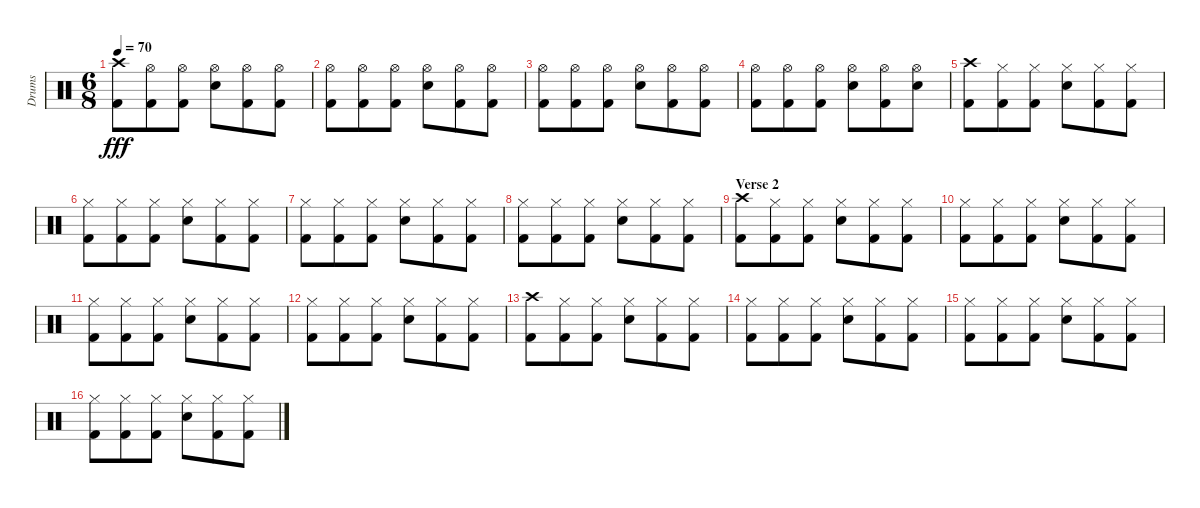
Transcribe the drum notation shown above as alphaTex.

\track ("Drums" "Drums") {instrument percussion}
\staff {score}
\articulation defaults
\ts (6 8)
\tempo 70
\clef neutral
\ks c
("Crash high (hit)" "Kick (hit) 2").8{dy fff} ("Hi-Hat (open)" "Kick (hit) 2").8 ("Hi-Hat (open)" "Kick (hit) 2").8 ("Hi-Hat (open)" "Electric Snare (hit)").8 ("Hi-Hat (open)" "Kick (hit) 2").8 ("Hi-Hat (open)" "Kick (hit) 2").8 |
("Hi-Hat (open)" "Kick (hit) 2").8 ("Hi-Hat (open)" "Kick (hit) 2").8 ("Hi-Hat (open)" "Kick (hit) 2").8 ("Hi-Hat (open)" "Electric Snare (hit)").8 ("Hi-Hat (open)" "Kick (hit) 2").8 ("Hi-Hat (open)" "Kick (hit) 2").8 |
("Hi-Hat (open)" "Kick (hit) 2").8 ("Hi-Hat (open)" "Kick (hit) 2").8 ("Hi-Hat (open)" "Kick (hit) 2").8 ("Hi-Hat (open)" "Electric Snare (hit)").8 ("Hi-Hat (open)" "Kick (hit) 2").8 ("Hi-Hat (open)" "Kick (hit) 2").8 |
("Hi-Hat (open)" "Kick (hit) 2").8 ("Hi-Hat (open)" "Kick (hit) 2").8 ("Hi-Hat (open)" "Kick (hit) 2").8 ("Hi-Hat (open)" "Electric Snare (hit)").8 ("Hi-Hat (open)" "Kick (hit) 2").8 ("Hi-Hat (open)" "Electric Snare (hit)").8 |
("Crash high (hit)" "Kick (hit) 2").8 ("Hi-Hat (closed)" "Kick (hit) 2").8 ("Hi-Hat (closed)" "Kick (hit) 2").8 ("Hi-Hat (closed)" "Electric Snare (hit)").8 ("Hi-Hat (closed)" "Kick (hit) 2").8 ("Hi-Hat (closed)" "Kick (hit) 2").8 |
("Hi-Hat (closed)" "Kick (hit) 2").8 ("Hi-Hat (closed)" "Kick (hit) 2").8 ("Hi-Hat (closed)" "Kick (hit) 2").8 ("Hi-Hat (closed)" "Electric Snare (hit)").8 ("Hi-Hat (closed)" "Kick (hit) 2").8 ("Hi-Hat (closed)" "Kick (hit) 2").8 |
("Hi-Hat (closed)" "Kick (hit) 2").8 ("Hi-Hat (closed)" "Kick (hit) 2").8 ("Hi-Hat (closed)" "Kick (hit) 2").8 ("Hi-Hat (closed)" "Electric Snare (hit)").8 ("Hi-Hat (closed)" "Kick (hit) 2").8 ("Hi-Hat (closed)" "Kick (hit) 2").8 |
("Hi-Hat (closed)" "Kick (hit) 2").8 ("Hi-Hat (closed)" "Kick (hit) 2").8 ("Hi-Hat (closed)" "Kick (hit) 2").8 ("Hi-Hat (closed)" "Electric Snare (hit)").8 ("Hi-Hat (closed)" "Kick (hit) 2").8 ("Hi-Hat (closed)" "Kick (hit) 2").8 |
\section ("" "Verse 2")
("Crash high (hit)" "Kick (hit) 2").8 ("Hi-Hat (closed)" "Kick (hit) 2").8 ("Hi-Hat (closed)" "Kick (hit) 2").8 ("Hi-Hat (closed)" "Electric Snare (hit)").8 ("Hi-Hat (closed)" "Kick (hit) 2").8 ("Hi-Hat (closed)" "Kick (hit) 2").8 |
("Hi-Hat (closed)" "Kick (hit) 2").8 ("Hi-Hat (closed)" "Kick (hit) 2").8 ("Hi-Hat (closed)" "Kick (hit) 2").8 ("Hi-Hat (closed)" "Electric Snare (hit)").8 ("Hi-Hat (closed)" "Kick (hit) 2").8 ("Hi-Hat (closed)" "Kick (hit) 2").8 |
("Hi-Hat (closed)" "Kick (hit) 2").8 ("Hi-Hat (closed)" "Kick (hit) 2").8 ("Hi-Hat (closed)" "Kick (hit) 2").8 ("Hi-Hat (closed)" "Electric Snare (hit)").8 ("Hi-Hat (closed)" "Kick (hit) 2").8 ("Hi-Hat (closed)" "Kick (hit) 2").8 |
("Hi-Hat (closed)" "Kick (hit) 2").8 ("Hi-Hat (closed)" "Kick (hit) 2").8 ("Hi-Hat (closed)" "Kick (hit) 2").8 ("Hi-Hat (closed)" "Electric Snare (hit)").8 ("Hi-Hat (closed)" "Kick (hit) 2").8 ("Hi-Hat (closed)" "Kick (hit) 2").8 |
("Crash high (hit)" "Kick (hit) 2").8 ("Hi-Hat (closed)" "Kick (hit) 2").8 ("Hi-Hat (closed)" "Kick (hit) 2").8 ("Hi-Hat (closed)" "Electric Snare (hit)").8 ("Hi-Hat (closed)" "Kick (hit) 2").8 ("Hi-Hat (closed)" "Kick (hit) 2").8 |
("Hi-Hat (closed)" "Kick (hit) 2").8 ("Hi-Hat (closed)" "Kick (hit) 2").8 ("Hi-Hat (closed)" "Kick (hit) 2").8 ("Hi-Hat (closed)" "Electric Snare (hit)").8 ("Hi-Hat (closed)" "Kick (hit) 2").8 ("Hi-Hat (closed)" "Kick (hit) 2").8 |
("Hi-Hat (closed)" "Kick (hit) 2").8 ("Hi-Hat (closed)" "Kick (hit) 2").8 ("Hi-Hat (closed)" "Kick (hit) 2").8 ("Hi-Hat (closed)" "Electric Snare (hit)").8 ("Hi-Hat (closed)" "Kick (hit) 2").8 ("Hi-Hat (closed)" "Kick (hit) 2").8 |
("Hi-Hat (closed)" "Kick (hit) 2").8 ("Hi-Hat (closed)" "Kick (hit) 2").8 ("Hi-Hat (closed)" "Kick (hit) 2").8 ("Hi-Hat (closed)" "Electric Snare (hit)").8 ("Hi-Hat (closed)" "Kick (hit) 2").8 ("Hi-Hat (closed)" "Kick (hit) 2").8
